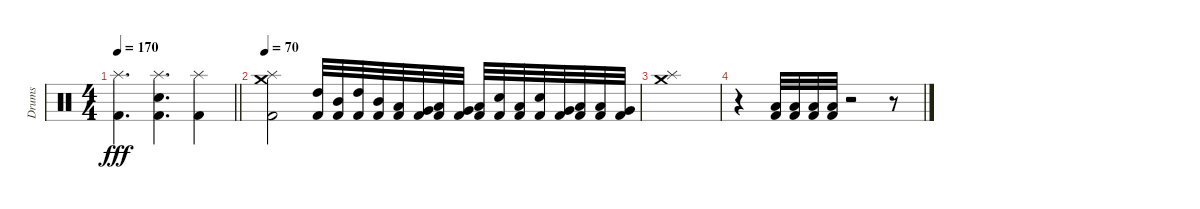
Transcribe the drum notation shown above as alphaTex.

\track ("Drums" "Drums") {instrument percussion}
\staff {score}
\articulation defaults
\ts (4 4)
\tempo 170
\clef neutral
\barLineRight lightlight
\ks c
("Splash (hit)" "Kick (hit) 2").4{d dy fff} ("Splash (hit)" "Electric Snare (hit)" "Kick (hit) 2").4{d} ("Splash (hit)" "Kick (hit) 2").4 |
\tempo 70
("Crash medium (hit)" "Splash (hit)" "Kick (hit) 2").2 ("High Tom (hit)" "Kick (hit) 2").32 ("Mid Tom (hit)" "Kick (hit) 2").32 ("High Tom (hit)" "Kick (hit) 2").32 ("Mid Tom (hit)" "Kick (hit) 2").32 ("Low Tom (hit)" "Kick (hit) 2").32 ("Very Low Tom (hit)" "Kick (hit) 2").32 ("Low Tom (hit)" "Kick (hit) 2").32 ("Very Low Tom (hit)" "Kick (hit) 2").32 ("Low Floor Tom (hit)" "Kick (hit) 2").32 ("Electric Snare (hit)" "Kick (hit) 2").32 ("Low Floor Tom (hit)" "Kick (hit) 2").32 ("Electric Snare (hit)" "Kick (hit) 2").32 ("Very Low Tom (hit)" "Kick (hit) 2").32 ("Low Floor Tom (hit)" "Kick (hit) 2").32 ("Low Tom (hit)" "Kick (hit) 2").32 ("Very Low Tom (hit)" "Kick (hit) 2").32 |
("Crash medium (hit)" "Splash (hit)").1 |
r.4 ("Low Floor Tom (hit)" "Kick (hit) 2").32 ("Low Floor Tom (hit)" "Kick (hit) 2").32 ("Low Floor Tom (hit)" "Kick (hit) 2").32 ("Low Floor Tom (hit)" "Kick (hit) 2").32 r.2 r.8
